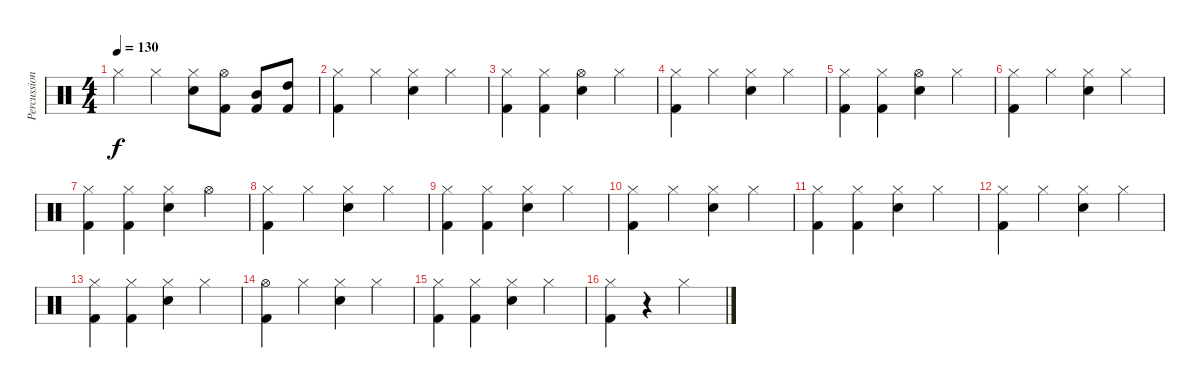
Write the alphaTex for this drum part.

\track ("Percussion" "Percussion") {instrument percussion}
\staff {score}
\articulation defaults
\ts (4 4)
\tempo 130
\clef neutral
\ks c "Hi-Hat (closed)".4{dy f} "Hi-Hat (closed)".4
("Hi-Hat (closed)" "Snare (hit) 2").8 ("Kick (hit) 2" "Hi-Hat (open)").8 ("Mid Tom (hit)" "Kick (hit) 2").8 ("High Tom (hit)" "Kick (hit) 2").8 |
("Hi-Hat (closed)" "Kick (hit) 2").4 "Hi-Hat (closed)".4 ("Snare (hit) 2" "Hi-Hat (closed)").4 "Hi-Hat (closed)".4 |
("Hi-Hat (closed)" "Kick (hit) 2").4 ("Hi-Hat (closed)" "Kick (hit) 2").4 ("Hi-Hat (open)" "Snare (hit) 2").4 "Hi-Hat (closed)".4 |
("Hi-Hat (closed)" "Kick (hit) 2").4 "Hi-Hat (closed)".4 ("Snare (hit) 2" "Hi-Hat (closed)").4 "Hi-Hat (closed)".4 |
("Hi-Hat (closed)" "Kick (hit) 2").4 ("Hi-Hat (closed)" "Kick (hit) 2").4 ("Hi-Hat (open)" "Snare (hit) 2").4 "Hi-Hat (closed)".4 |
("Hi-Hat (closed)" "Kick (hit) 2").4 "Hi-Hat (closed)".4 ("Snare (hit) 2" "Hi-Hat (closed)").4 "Hi-Hat (closed)".4 |
("Hi-Hat (closed)" "Kick (hit) 2").4 ("Hi-Hat (closed)" "Kick (hit) 2").4 ("Hi-Hat (closed)" "Snare (hit) 2").4 "Hi-Hat (open)".4 |
("Hi-Hat (closed)" "Kick (hit) 2").4 "Hi-Hat (closed)".4 ("Snare (hit) 2" "Hi-Hat (closed)").4 "Hi-Hat (closed)".4 |
("Hi-Hat (closed)" "Kick (hit) 2").4 ("Hi-Hat (closed)" "Kick (hit) 2").4 ("Hi-Hat (closed)" "Snare (hit) 2").4 "Hi-Hat (closed)".4 |
("Hi-Hat (closed)" "Kick (hit) 2").4 "Hi-Hat (closed)".4 ("Snare (hit) 2" "Hi-Hat (closed)").4 "Hi-Hat (closed)".4 |
("Hi-Hat (closed)" "Kick (hit) 2").4 ("Hi-Hat (closed)" "Kick (hit) 2").4 ("Hi-Hat (closed)" "Snare (hit) 2").4 "Hi-Hat (closed)".4 |
("Hi-Hat (closed)" "Kick (hit) 2").4 "Hi-Hat (closed)".4 ("Snare (hit) 2" "Hi-Hat (closed)").4 "Hi-Hat (closed)".4 |
("Hi-Hat (closed)" "Kick (hit) 2").4 ("Hi-Hat (closed)" "Kick (hit) 2").4 ("Hi-Hat (closed)" "Snare (hit) 2").4 "Hi-Hat (closed)".4 |
("Kick (hit) 2" "Hi-Hat (open)").4 "Hi-Hat (closed)".4 ("Hi-Hat (closed)" "Snare (hit) 2").4 "Hi-Hat (closed)".4 |
("Hi-Hat (closed)" "Kick (hit) 2").4 ("Hi-Hat (closed)" "Kick (hit) 2").4 ("Hi-Hat (closed)" "Snare (hit) 2").4 "Hi-Hat (closed)".4 |
("Hi-Hat (closed)" "Kick (hit) 2").4 r.4 "Hi-Hat (closed)".2
